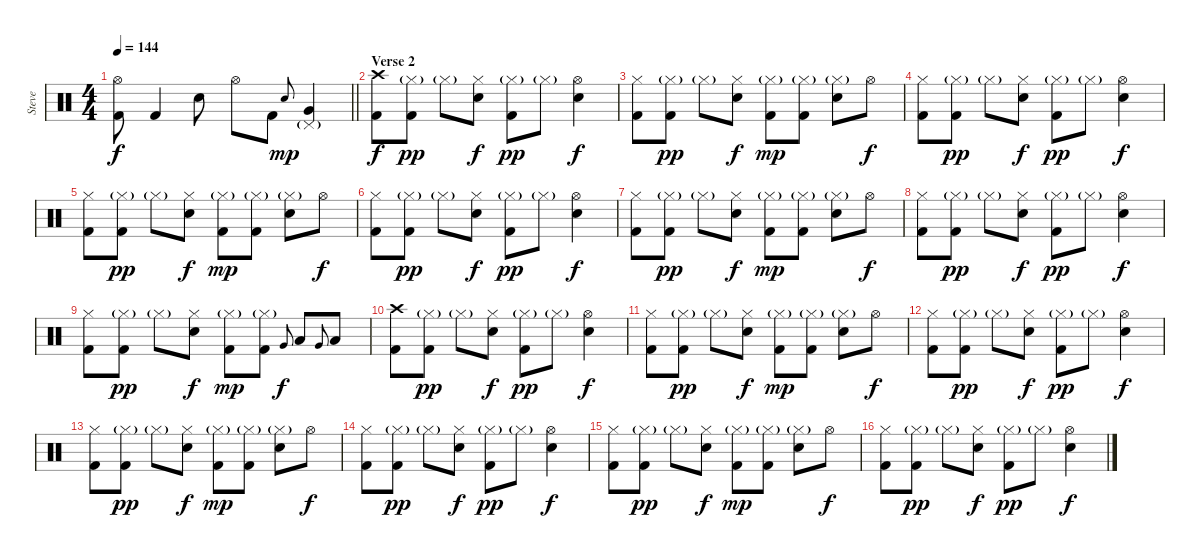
\track ("Steve" "Steve") {instrument percussion}
\staff {score}
\articulation defaults
\ts (4 4)
\tempo 144
\clef neutral
\barLineRight lightlight
\ks c
("Hi-Hat (open)" "Kick (hit) 2").8{dy f} "Kick (hit) 2".4 "Electric Snare (hit)".8 "Hi-Hat (open)".8 "Kick (hit) 2".8 "Electric Snare (hit)".8{gr onbeat dy mp} ("Pedal Hi-Hat (hit)"{g} "Very Low Tom (hit)").4 |
\section ("" "Verse 2")
("Crash high (hit)" "Kick (hit) 2").8{dy f} ("Hi-Hat (closed)"{g} "Kick (hit) 2").8{dy pp} "Hi-Hat (closed)"{g}.8 ("Hi-Hat (closed)" "Electric Snare (hit)").8{dy f} ("Hi-Hat (closed)"{g} "Kick (hit) 2").8{dy pp} "Hi-Hat (closed)"{g}.8 ("Hi-Hat (open)" "Electric Snare (hit)").4{dy f} |
("Hi-Hat (closed)" "Kick (hit) 2").8 ("Hi-Hat (closed)"{g} "Kick (hit) 2").8{dy pp} "Hi-Hat (closed)"{g}.8 ("Hi-Hat (closed)" "Electric Snare (hit)").8{dy f} ("Hi-Hat (closed)"{g} "Kick (hit) 2").8{dy mp} ("Hi-Hat (closed)"{g} "Kick (hit) 2").8 ("Hi-Hat (closed)"{g} "Electric Snare (hit)").8 "Hi-Hat (open)".8{dy f} |
("Hi-Hat (closed)" "Kick (hit) 2").8 ("Hi-Hat (closed)"{g} "Kick (hit) 2").8{dy pp} "Hi-Hat (closed)"{g}.8 ("Hi-Hat (closed)" "Electric Snare (hit)").8{dy f} ("Hi-Hat (closed)"{g} "Kick (hit) 2").8{dy pp} "Hi-Hat (closed)"{g}.8 ("Hi-Hat (open)" "Electric Snare (hit)").4{dy f} |
("Hi-Hat (closed)" "Kick (hit) 2").8 ("Hi-Hat (closed)"{g} "Kick (hit) 2").8{dy pp} "Hi-Hat (closed)"{g}.8 ("Hi-Hat (closed)" "Electric Snare (hit)").8{dy f} ("Hi-Hat (closed)"{g} "Kick (hit) 2").8{dy mp} ("Hi-Hat (closed)"{g} "Kick (hit) 2").8 ("Hi-Hat (closed)"{g} "Electric Snare (hit)").8 "Hi-Hat (open)".8{dy f} |
("Hi-Hat (closed)" "Kick (hit) 2").8 ("Hi-Hat (closed)"{g} "Kick (hit) 2").8{dy pp} "Hi-Hat (closed)"{g}.8 ("Hi-Hat (closed)" "Electric Snare (hit)").8{dy f} ("Hi-Hat (closed)"{g} "Kick (hit) 2").8{dy pp} "Hi-Hat (closed)"{g}.8 ("Hi-Hat (open)" "Electric Snare (hit)").4{dy f} |
("Hi-Hat (closed)" "Kick (hit) 2").8 ("Hi-Hat (closed)"{g} "Kick (hit) 2").8{dy pp} "Hi-Hat (closed)"{g}.8 ("Hi-Hat (closed)" "Electric Snare (hit)").8{dy f} ("Hi-Hat (closed)"{g} "Kick (hit) 2").8{dy mp} ("Hi-Hat (closed)"{g} "Kick (hit) 2").8 ("Hi-Hat (closed)"{g} "Electric Snare (hit)").8 "Hi-Hat (open)".8{dy f} |
("Hi-Hat (closed)" "Kick (hit) 2").8 ("Hi-Hat (closed)"{g} "Kick (hit) 2").8{dy pp} "Hi-Hat (closed)"{g}.8 ("Hi-Hat (closed)" "Electric Snare (hit)").8{dy f} ("Hi-Hat (closed)"{g} "Kick (hit) 2").8{dy pp} "Hi-Hat (closed)"{g}.8 ("Hi-Hat (open)" "Electric Snare (hit)").4{dy f} |
("Hi-Hat (closed)" "Kick (hit) 2").8 ("Hi-Hat (closed)"{g} "Kick (hit) 2").8{dy pp} "Hi-Hat (closed)"{g}.8 ("Hi-Hat (closed)" "Electric Snare (hit)").8{dy f} ("Hi-Hat (closed)"{g} "Kick (hit) 2").8{dy mp} ("Hi-Hat (closed)"{g} "Kick (hit) 2").8 "Very Low Tom (hit)".8{gr onbeat dy f} "Low Tom (hit)".8 "Very Low Tom (hit)".8{gr onbeat} "Low Tom (hit)".8 |
("Crash high (hit)" "Kick (hit) 2").8 ("Hi-Hat (closed)"{g} "Kick (hit) 2").8{dy pp} "Hi-Hat (closed)"{g}.8 ("Hi-Hat (closed)" "Electric Snare (hit)").8{dy f} ("Hi-Hat (closed)"{g} "Kick (hit) 2").8{dy pp} "Hi-Hat (closed)"{g}.8 ("Hi-Hat (open)" "Electric Snare (hit)").4{dy f} |
("Hi-Hat (closed)" "Kick (hit) 2").8 ("Hi-Hat (closed)"{g} "Kick (hit) 2").8{dy pp} "Hi-Hat (closed)"{g}.8 ("Hi-Hat (closed)" "Electric Snare (hit)").8{dy f} ("Hi-Hat (closed)"{g} "Kick (hit) 2").8{dy mp} ("Hi-Hat (closed)"{g} "Kick (hit) 2").8 ("Hi-Hat (closed)"{g} "Electric Snare (hit)").8 "Hi-Hat (open)".8{dy f} |
("Hi-Hat (closed)" "Kick (hit) 2").8 ("Hi-Hat (closed)"{g} "Kick (hit) 2").8{dy pp} "Hi-Hat (closed)"{g}.8 ("Hi-Hat (closed)" "Electric Snare (hit)").8{dy f} ("Hi-Hat (closed)"{g} "Kick (hit) 2").8{dy pp} "Hi-Hat (closed)"{g}.8 ("Hi-Hat (open)" "Electric Snare (hit)").4{dy f} |
("Hi-Hat (closed)" "Kick (hit) 2").8 ("Hi-Hat (closed)"{g} "Kick (hit) 2").8{dy pp} "Hi-Hat (closed)"{g}.8 ("Hi-Hat (closed)" "Electric Snare (hit)").8{dy f} ("Hi-Hat (closed)"{g} "Kick (hit) 2").8{dy mp} ("Hi-Hat (closed)"{g} "Kick (hit) 2").8 ("Hi-Hat (closed)"{g} "Electric Snare (hit)").8 "Hi-Hat (open)".8{dy f} |
("Hi-Hat (closed)" "Kick (hit) 2").8 ("Hi-Hat (closed)"{g} "Kick (hit) 2").8{dy pp} "Hi-Hat (closed)"{g}.8 ("Hi-Hat (closed)" "Electric Snare (hit)").8{dy f} ("Hi-Hat (closed)"{g} "Kick (hit) 2").8{dy pp} "Hi-Hat (closed)"{g}.8 ("Hi-Hat (open)" "Electric Snare (hit)").4{dy f} |
("Hi-Hat (closed)" "Kick (hit) 2").8 ("Hi-Hat (closed)"{g} "Kick (hit) 2").8{dy pp} "Hi-Hat (closed)"{g}.8 ("Hi-Hat (closed)" "Electric Snare (hit)").8{dy f} ("Hi-Hat (closed)"{g} "Kick (hit) 2").8{dy mp} ("Hi-Hat (closed)"{g} "Kick (hit) 2").8 ("Hi-Hat (closed)"{g} "Electric Snare (hit)").8 "Hi-Hat (open)".8{dy f} |
("Hi-Hat (closed)" "Kick (hit) 2").8 ("Hi-Hat (closed)"{g} "Kick (hit) 2").8{dy pp} "Hi-Hat (closed)"{g}.8 ("Hi-Hat (closed)" "Electric Snare (hit)").8{dy f} ("Hi-Hat (closed)"{g} "Kick (hit) 2").8{dy pp} "Hi-Hat (closed)"{g}.8 ("Hi-Hat (open)" "Electric Snare (hit)").4{dy f}
